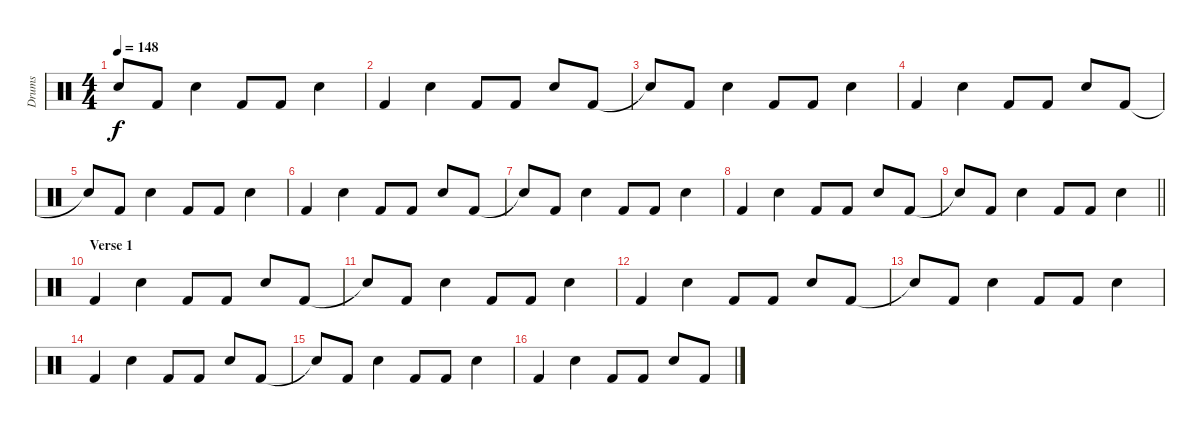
\track ("Drums" "Drums") {instrument percussion}
\staff {score}
\articulation defaults
\ts (4 4)
\tempo 148
\clef neutral
\ks c "Snare (hit)"{t}.8{dy f} "Kick (hit) 2".8 "Electric Snare (hit)".4 "Kick (hit) 2".8 "Kick (hit) 2".8 "Electric Snare (hit)".4
|
"Kick (hit) 2".4 "Electric Snare (hit)".4 "Kick (hit) 2".8 "Kick (hit) 2".8 "Electric Snare (hit)".8 "Kick (hit) 2".8 |
"Snare (hit)"{t}.8 "Kick (hit) 2".8 "Electric Snare (hit)".4 "Kick (hit) 2".8 "Kick (hit) 2".8 "Electric Snare (hit)".4 |
"Kick (hit) 2".4 "Electric Snare (hit)".4 "Kick (hit) 2".8 "Kick (hit) 2".8 "Electric Snare (hit)".8 "Kick (hit) 2".8 |
"Snare (hit)"{t}.8 "Kick (hit) 2".8 "Electric Snare (hit)".4 "Kick (hit) 2".8 "Kick (hit) 2".8 "Electric Snare (hit)".4 |
"Kick (hit) 2".4 "Electric Snare (hit)".4 "Kick (hit) 2".8 "Kick (hit) 2".8 "Electric Snare (hit)".8 "Kick (hit) 2".8 |
"Snare (hit)"{t}.8 "Kick (hit) 2".8 "Electric Snare (hit)".4 "Kick (hit) 2".8 "Kick (hit) 2".8 "Electric Snare (hit)".4 |
"Kick (hit) 2".4 "Electric Snare (hit)".4 "Kick (hit) 2".8 "Kick (hit) 2".8 "Electric Snare (hit)".8 "Kick (hit) 2".8 |
\barLineRight lightlight "Snare (hit)"{t}.8 "Kick (hit) 2".8 "Electric Snare (hit)".4 "Kick (hit) 2".8 "Kick (hit) 2".8 "Electric Snare (hit)".4
|
\section ("" "Verse 1")
"Kick (hit) 2".4 "Electric Snare (hit)".4 "Kick (hit) 2".8 "Kick (hit) 2".8 "Electric Snare (hit)".8 "Kick (hit) 2".8 |
"Snare (hit)"{t}.8 "Kick (hit) 2".8 "Electric Snare (hit)".4 "Kick (hit) 2".8 "Kick (hit) 2".8 "Electric Snare (hit)".4 |
"Kick (hit) 2".4 "Electric Snare (hit)".4 "Kick (hit) 2".8 "Kick (hit) 2".8 "Electric Snare (hit)".8 "Kick (hit) 2".8 |
"Snare (hit)"{t}.8 "Kick (hit) 2".8 "Electric Snare (hit)".4 "Kick (hit) 2".8 "Kick (hit) 2".8 "Electric Snare (hit)".4 |
"Kick (hit) 2".4 "Electric Snare (hit)".4 "Kick (hit) 2".8 "Kick (hit) 2".8 "Electric Snare (hit)".8 "Kick (hit) 2".8 |
"Snare (hit)"{t}.8 "Kick (hit) 2".8 "Electric Snare (hit)".4 "Kick (hit) 2".8 "Kick (hit) 2".8 "Electric Snare (hit)".4 |
"Kick (hit) 2".4 "Electric Snare (hit)".4 "Kick (hit) 2".8 "Kick (hit) 2".8 "Electric Snare (hit)".8 "Kick (hit) 2".8
